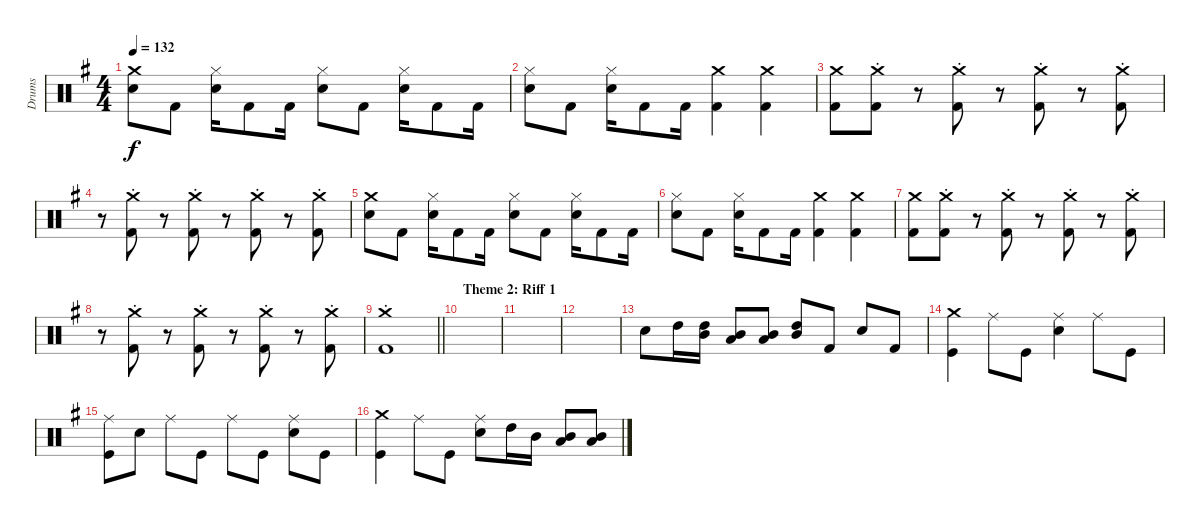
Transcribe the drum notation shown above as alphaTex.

\track ("Drums" "Drums") {instrument percussion}
\staff {score}
\articulation defaults
\ts (4 4)
\tempo 132
\clef neutral
\ks g
("Crash medium (hit)" "Snare (hit) 2").8{dy f} "Kick (hit) 2".8 ("Hi-Hat (closed)" "Snare (hit) 2").16 "Kick (hit) 2".8 "Kick (hit) 2".16 ("Hi-Hat (closed)" "Snare (hit) 2").8 "Kick (hit) 2".8 ("Hi-Hat (closed)" "Snare (hit) 2").16 "Kick (hit) 2".8 "Kick (hit) 2".16 |
("Hi-Hat (closed)" "Snare (hit) 2").8 "Kick (hit) 2".8 ("Hi-Hat (closed)" "Snare (hit) 2").16 "Kick (hit) 2".8 "Kick (hit) 2".16 ("Crash medium (hit)" "Kick (hit) 2").4 ("Crash medium (hit)" "Kick (hit) 2").4 |
("Crash medium (hit)" "Kick (hit) 2").8 ("Crash medium (hit)"{st} "Kick (hit) 2"{st}).8 r.8 ("Crash medium (hit)"{st} "Kick (hit) 2"{st}).8 r.8 ("Crash medium (hit)"{st} "Kick (hit) 2"{st}).8 r.8 ("Crash medium (hit)"{st} "Kick (hit) 2"{st}).8 |
r.8 ("Crash medium (hit)"{st} "Kick (hit) 2"{st}).8 r.8 ("Crash medium (hit)"{st} "Kick (hit) 2"{st}).8 r.8 ("Crash medium (hit)"{st} "Kick (hit) 2"{st}).8 r.8 ("Crash medium (hit)"{st} "Kick (hit) 2"{st}).8 |
("Crash medium (hit)" "Snare (hit) 2").8 "Kick (hit) 2".8 ("Hi-Hat (closed)" "Snare (hit) 2").16 "Kick (hit) 2".8 "Kick (hit) 2".16 ("Hi-Hat (closed)" "Snare (hit) 2").8 "Kick (hit) 2".8 ("Hi-Hat (closed)" "Snare (hit) 2").16 "Kick (hit) 2".8 "Kick (hit) 2".16 |
("Hi-Hat (closed)" "Snare (hit) 2").8 "Kick (hit) 2".8 ("Hi-Hat (closed)" "Snare (hit) 2").16 "Kick (hit) 2".8 "Kick (hit) 2".16 ("Crash medium (hit)" "Kick (hit) 2").4 ("Crash medium (hit)" "Kick (hit) 2").4 |
("Crash medium (hit)" "Kick (hit) 2").8 ("Crash medium (hit)"{st} "Kick (hit) 2"{st}).8 r.8 ("Crash medium (hit)"{st} "Kick (hit) 2"{st}).8 r.8 ("Crash medium (hit)"{st} "Kick (hit) 2"{st}).8 r.8 ("Crash medium (hit)"{st} "Kick (hit) 2"{st}).8 |
r.8 ("Crash medium (hit)"{st} "Kick (hit) 2"{st}).8 r.8 ("Crash medium (hit)"{st} "Kick (hit) 2"{st}).8 r.8 ("Crash medium (hit)"{st} "Kick (hit) 2"{st}).8 r.8 ("Crash medium (hit)"{st} "Kick (hit) 2"{st}).8 |
\barLineRight lightlight
("Crash medium (hit)"{st} "Kick (hit) 2"{st}).1 |
\section ("" "Theme 2: Riff 1")
|
|
|
"Snare (hit) 2".8{balance 0} "High Tom (hit)".16 ("High Tom (hit)" "Mid Tom (hit)").16 ("Mid Tom (hit)" "Low Tom (hit)").8{balance 8} ("Mid Tom (hit)" "Low Tom (hit)").8 ("High Tom (hit)" "Mid Tom (hit)").8 "Kick (hit) 2".8{balance 16} "Snare (hit) 2".8 "Kick (hit) 2".8 |
("Crash medium (hit)" "Kick (hit)").4{balance 8} "Ride (middle)".8 "Kick (hit)".8 ("Ride (middle)" "Snare (hit) 2").4 "Ride (middle)".8 "Kick (hit)".8 |
("Ride (middle)" "Kick (hit)").8 "Snare (hit) 2".8 "Ride (middle)".8 "Kick (hit)".8 "Ride (middle)".8 "Kick (hit)".8 ("Ride (middle)" "Snare (hit) 2").8 "Kick (hit)".8 |
("Crash medium (hit)" "Kick (hit)").4 "Ride (middle)".8 "Kick (hit)".8 ("Ride (middle)" "Snare (hit) 2").8{balance 0} "High Tom (hit)".16 "Mid Tom (hit)".16{balance 6} ("Mid Tom (hit)" "Low Tom (hit)").8{balance 9} ("Mid Tom (hit)" "Low Tom (hit)").8
